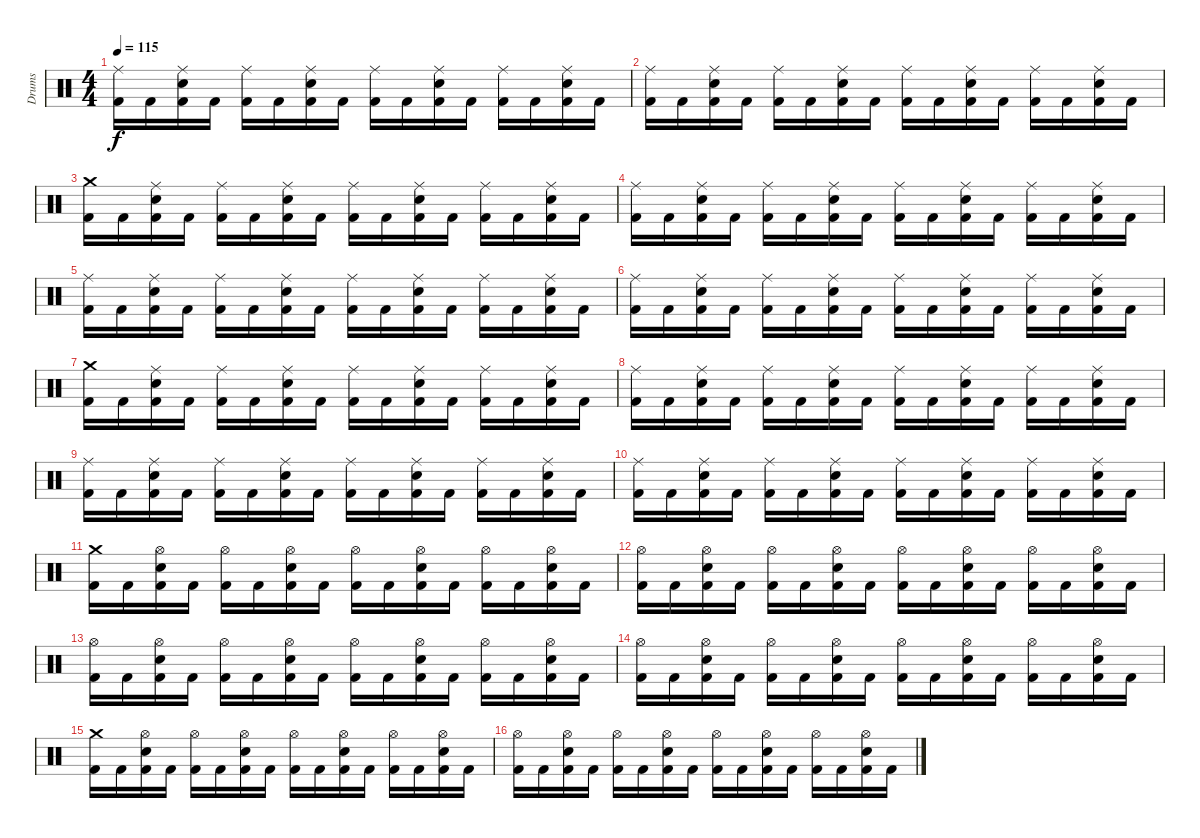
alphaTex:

\track ("Drums" "Drums") {instrument percussion}
\staff {score}
\articulation defaults
\ts (4 4)
\tempo 115
\clef neutral
\ks c
("Ride (middle)" "Kick (hit) 2").16{dy f} "Kick (hit) 2".16 ("Ride (middle)" "Electric Snare (hit)" "Kick (hit) 2").16 "Kick (hit) 2".16 ("Ride (middle)" "Kick (hit) 2").16 "Kick (hit) 2".16 ("Ride (middle)" "Electric Snare (hit)" "Kick (hit) 2").16 "Kick (hit) 2".16 ("Ride (middle)" "Kick (hit) 2").16 "Kick (hit) 2".16 ("Ride (middle)" "Electric Snare (hit)" "Kick (hit) 2").16 "Kick (hit) 2".16 ("Ride (middle)" "Kick (hit) 2").16 "Kick (hit) 2".16 ("Ride (middle)" "Electric Snare (hit)" "Kick (hit) 2").16 "Kick (hit) 2".16 |
("Ride (middle)" "Kick (hit) 2").16 "Kick (hit) 2".16 ("Ride (middle)" "Electric Snare (hit)" "Kick (hit) 2").16 "Kick (hit) 2".16 ("Ride (middle)" "Kick (hit) 2").16 "Kick (hit) 2".16 ("Ride (middle)" "Electric Snare (hit)" "Kick (hit) 2").16 "Kick (hit) 2".16 ("Ride (middle)" "Kick (hit) 2").16 "Kick (hit) 2".16 ("Ride (middle)" "Electric Snare (hit)" "Kick (hit) 2").16 "Kick (hit) 2".16 ("Ride (middle)" "Kick (hit) 2").16 "Kick (hit) 2".16 ("Ride (middle)" "Electric Snare (hit)" "Kick (hit) 2").16 "Kick (hit) 2".16 |
("Crash medium (hit)" "Kick (hit) 2").16 "Kick (hit) 2".16 ("Ride (middle)" "Electric Snare (hit)" "Kick (hit) 2").16 "Kick (hit) 2".16 ("Ride (middle)" "Kick (hit) 2").16 "Kick (hit) 2".16 ("Ride (middle)" "Electric Snare (hit)" "Kick (hit) 2").16 "Kick (hit) 2".16 ("Ride (middle)" "Kick (hit) 2").16 "Kick (hit) 2".16 ("Ride (middle)" "Electric Snare (hit)" "Kick (hit) 2").16 "Kick (hit) 2".16 ("Ride (middle)" "Kick (hit) 2").16 "Kick (hit) 2".16 ("Ride (middle)" "Electric Snare (hit)" "Kick (hit) 2").16 "Kick (hit) 2".16 |
("Ride (middle)" "Kick (hit) 2").16 "Kick (hit) 2".16 ("Ride (middle)" "Electric Snare (hit)" "Kick (hit) 2").16 "Kick (hit) 2".16 ("Ride (middle)" "Kick (hit) 2").16 "Kick (hit) 2".16 ("Ride (middle)" "Electric Snare (hit)" "Kick (hit) 2").16 "Kick (hit) 2".16 ("Ride (middle)" "Kick (hit) 2").16 "Kick (hit) 2".16 ("Ride (middle)" "Electric Snare (hit)" "Kick (hit) 2").16 "Kick (hit) 2".16 ("Ride (middle)" "Kick (hit) 2").16 "Kick (hit) 2".16 ("Ride (middle)" "Electric Snare (hit)" "Kick (hit) 2").16 "Kick (hit) 2".16 |
("Ride (middle)" "Kick (hit) 2").16 "Kick (hit) 2".16 ("Ride (middle)" "Electric Snare (hit)" "Kick (hit) 2").16 "Kick (hit) 2".16 ("Ride (middle)" "Kick (hit) 2").16 "Kick (hit) 2".16 ("Ride (middle)" "Electric Snare (hit)" "Kick (hit) 2").16 "Kick (hit) 2".16 ("Ride (middle)" "Kick (hit) 2").16 "Kick (hit) 2".16 ("Ride (middle)" "Electric Snare (hit)" "Kick (hit) 2").16 "Kick (hit) 2".16 ("Ride (middle)" "Kick (hit) 2").16 "Kick (hit) 2".16 ("Ride (middle)" "Electric Snare (hit)" "Kick (hit) 2").16 "Kick (hit) 2".16 |
("Ride (middle)" "Kick (hit) 2").16 "Kick (hit) 2".16 ("Ride (middle)" "Electric Snare (hit)" "Kick (hit) 2").16 "Kick (hit) 2".16 ("Ride (middle)" "Kick (hit) 2").16 "Kick (hit) 2".16 ("Ride (middle)" "Electric Snare (hit)" "Kick (hit) 2").16 "Kick (hit) 2".16 ("Ride (middle)" "Kick (hit) 2").16 "Kick (hit) 2".16 ("Ride (middle)" "Electric Snare (hit)" "Kick (hit) 2").16 "Kick (hit) 2".16 ("Ride (middle)" "Kick (hit) 2").16 "Kick (hit) 2".16 ("Ride (middle)" "Electric Snare (hit)" "Kick (hit) 2").16 "Kick (hit) 2".16 |
("Crash medium (hit)" "Kick (hit) 2").16 "Kick (hit) 2".16 ("Ride (middle)" "Electric Snare (hit)" "Kick (hit) 2").16 "Kick (hit) 2".16 ("Ride (middle)" "Kick (hit) 2").16 "Kick (hit) 2".16 ("Ride (middle)" "Electric Snare (hit)" "Kick (hit) 2").16 "Kick (hit) 2".16 ("Ride (middle)" "Kick (hit) 2").16 "Kick (hit) 2".16 ("Ride (middle)" "Electric Snare (hit)" "Kick (hit) 2").16 "Kick (hit) 2".16 ("Ride (middle)" "Kick (hit) 2").16 "Kick (hit) 2".16 ("Ride (middle)" "Electric Snare (hit)" "Kick (hit) 2").16 "Kick (hit) 2".16 |
("Ride (middle)" "Kick (hit) 2").16 "Kick (hit) 2".16 ("Ride (middle)" "Electric Snare (hit)" "Kick (hit) 2").16 "Kick (hit) 2".16 ("Ride (middle)" "Kick (hit) 2").16 "Kick (hit) 2".16 ("Ride (middle)" "Electric Snare (hit)" "Kick (hit) 2").16 "Kick (hit) 2".16 ("Ride (middle)" "Kick (hit) 2").16 "Kick (hit) 2".16 ("Ride (middle)" "Electric Snare (hit)" "Kick (hit) 2").16 "Kick (hit) 2".16 ("Ride (middle)" "Kick (hit) 2").16 "Kick (hit) 2".16 ("Ride (middle)" "Electric Snare (hit)" "Kick (hit) 2").16 "Kick (hit) 2".16 |
("Ride (middle)" "Kick (hit) 2").16 "Kick (hit) 2".16 ("Ride (middle)" "Electric Snare (hit)" "Kick (hit) 2").16 "Kick (hit) 2".16 ("Ride (middle)" "Kick (hit) 2").16 "Kick (hit) 2".16 ("Ride (middle)" "Electric Snare (hit)" "Kick (hit) 2").16 "Kick (hit) 2".16 ("Ride (middle)" "Kick (hit) 2").16 "Kick (hit) 2".16 ("Ride (middle)" "Electric Snare (hit)" "Kick (hit) 2").16 "Kick (hit) 2".16 ("Ride (middle)" "Kick (hit) 2").16 "Kick (hit) 2".16 ("Ride (middle)" "Electric Snare (hit)" "Kick (hit) 2").16 "Kick (hit) 2".16 |
("Ride (middle)" "Kick (hit) 2").16 "Kick (hit) 2".16 ("Ride (middle)" "Electric Snare (hit)" "Kick (hit) 2").16 "Kick (hit) 2".16 ("Ride (middle)" "Kick (hit) 2").16 "Kick (hit) 2".16 ("Ride (middle)" "Electric Snare (hit)" "Kick (hit) 2").16 "Kick (hit) 2".16 ("Ride (middle)" "Kick (hit) 2").16 "Kick (hit) 2".16 ("Ride (middle)" "Electric Snare (hit)" "Kick (hit) 2").16 "Kick (hit) 2".16 ("Ride (middle)" "Kick (hit) 2").16 "Kick (hit) 2".16 ("Ride (middle)" "Electric Snare (hit)" "Kick (hit) 2").16 "Kick (hit) 2".16 |
("Crash medium (hit)" "Kick (hit) 2").16 "Kick (hit) 2".16 ("Hi-Hat (open)" "Electric Snare (hit)" "Kick (hit) 2").16 "Kick (hit) 2".16 ("Hi-Hat (open)" "Kick (hit) 2").16 "Kick (hit) 2".16 ("Hi-Hat (open)" "Electric Snare (hit)" "Kick (hit) 2").16 "Kick (hit) 2".16 ("Hi-Hat (open)" "Kick (hit) 2").16 "Kick (hit) 2".16 ("Hi-Hat (open)" "Electric Snare (hit)" "Kick (hit) 2").16 "Kick (hit) 2".16 ("Hi-Hat (open)" "Kick (hit) 2").16 "Kick (hit) 2".16 ("Hi-Hat (open)" "Electric Snare (hit)" "Kick (hit) 2").16 "Kick (hit) 2".16 |
("Hi-Hat (open)" "Kick (hit) 2").16 "Kick (hit) 2".16 ("Hi-Hat (open)" "Electric Snare (hit)" "Kick (hit) 2").16 "Kick (hit) 2".16 ("Hi-Hat (open)" "Kick (hit) 2").16 "Kick (hit) 2".16 ("Hi-Hat (open)" "Electric Snare (hit)" "Kick (hit) 2").16 "Kick (hit) 2".16 ("Hi-Hat (open)" "Kick (hit) 2").16 "Kick (hit) 2".16 ("Hi-Hat (open)" "Electric Snare (hit)" "Kick (hit) 2").16 "Kick (hit) 2".16 ("Hi-Hat (open)" "Kick (hit) 2").16 "Kick (hit) 2".16 ("Hi-Hat (open)" "Electric Snare (hit)" "Kick (hit) 2").16 "Kick (hit) 2".16 |
("Hi-Hat (open)" "Kick (hit) 2").16 "Kick (hit) 2".16 ("Hi-Hat (open)" "Electric Snare (hit)" "Kick (hit) 2").16 "Kick (hit) 2".16 ("Hi-Hat (open)" "Kick (hit) 2").16 "Kick (hit) 2".16 ("Hi-Hat (open)" "Electric Snare (hit)" "Kick (hit) 2").16 "Kick (hit) 2".16 ("Hi-Hat (open)" "Kick (hit) 2").16 "Kick (hit) 2".16 ("Hi-Hat (open)" "Electric Snare (hit)" "Kick (hit) 2").16 "Kick (hit) 2".16 ("Hi-Hat (open)" "Kick (hit) 2").16 "Kick (hit) 2".16 ("Hi-Hat (open)" "Electric Snare (hit)" "Kick (hit) 2").16 "Kick (hit) 2".16 |
("Hi-Hat (open)" "Kick (hit) 2").16 "Kick (hit) 2".16 ("Hi-Hat (open)" "Electric Snare (hit)" "Kick (hit) 2").16 "Kick (hit) 2".16 ("Hi-Hat (open)" "Kick (hit) 2").16 "Kick (hit) 2".16 ("Hi-Hat (open)" "Electric Snare (hit)" "Kick (hit) 2").16 "Kick (hit) 2".16 ("Hi-Hat (open)" "Kick (hit) 2").16 "Kick (hit) 2".16 ("Hi-Hat (open)" "Electric Snare (hit)" "Kick (hit) 2").16 "Kick (hit) 2".16 ("Hi-Hat (open)" "Kick (hit) 2").16 "Kick (hit) 2".16 ("Hi-Hat (open)" "Electric Snare (hit)" "Kick (hit) 2").16 "Kick (hit) 2".16 |
("Crash medium (hit)" "Kick (hit) 2").16 "Kick (hit) 2".16 ("Hi-Hat (open)" "Electric Snare (hit)" "Kick (hit) 2").16 "Kick (hit) 2".16 ("Hi-Hat (open)" "Kick (hit) 2").16 "Kick (hit) 2".16 ("Hi-Hat (open)" "Electric Snare (hit)" "Kick (hit) 2").16 "Kick (hit) 2".16 ("Hi-Hat (open)" "Kick (hit) 2").16 "Kick (hit) 2".16 ("Hi-Hat (open)" "Electric Snare (hit)" "Kick (hit) 2").16 "Kick (hit) 2".16 ("Hi-Hat (open)" "Kick (hit) 2").16 "Kick (hit) 2".16 ("Hi-Hat (open)" "Electric Snare (hit)" "Kick (hit) 2").16 "Kick (hit) 2".16 |
("Hi-Hat (open)" "Kick (hit) 2").16 "Kick (hit) 2".16 ("Hi-Hat (open)" "Electric Snare (hit)" "Kick (hit) 2").16 "Kick (hit) 2".16 ("Hi-Hat (open)" "Kick (hit) 2").16 "Kick (hit) 2".16 ("Hi-Hat (open)" "Electric Snare (hit)" "Kick (hit) 2").16 "Kick (hit) 2".16 ("Hi-Hat (open)" "Kick (hit) 2").16 "Kick (hit) 2".16 ("Hi-Hat (open)" "Electric Snare (hit)" "Kick (hit) 2").16 "Kick (hit) 2".16 ("Hi-Hat (open)" "Kick (hit) 2").16 "Kick (hit) 2".16 ("Hi-Hat (open)" "Electric Snare (hit)" "Kick (hit) 2").16 "Kick (hit) 2".16
